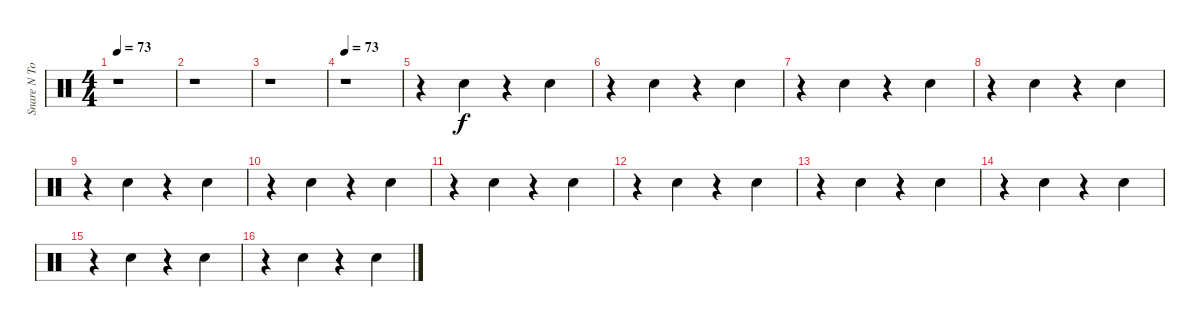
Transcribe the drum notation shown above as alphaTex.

\track ("Snare N Toms" "Snare N To") {instrument percussion}
\staff {score}
\articulation defaults
\ts (4 4)
\tempo 73
\clef neutral
\ks c
r.1{dy f} |
r.1 |
r.1 |
\tempo 73
r.1 |
r.4 "Snare (hit) 2".4 r.4 "Snare (hit) 2".4 |
r.4 "Snare (hit) 2".4 r.4 "Snare (hit) 2".4 |
r.4 "Snare (hit) 2".4 r.4 "Snare (hit) 2".4 |
r.4 "Snare (hit) 2".4 r.4 "Snare (hit) 2".4 |
r.4 "Snare (hit) 2".4 r.4 "Snare (hit) 2".4 |
r.4 "Snare (hit) 2".4 r.4 "Snare (hit) 2".4 |
r.4 "Snare (hit) 2".4 r.4 "Snare (hit) 2".4 |
r.4 "Snare (hit) 2".4 r.4 "Snare (hit) 2".4 |
r.4 "Snare (hit) 2".4 r.4 "Snare (hit) 2".4 |
r.4 "Snare (hit) 2".4 r.4 "Snare (hit) 2".4 |
r.4 "Snare (hit) 2".4 r.4 "Snare (hit) 2".4 |
r.4 "Snare (hit) 2".4 r.4 "Snare (hit) 2".4
